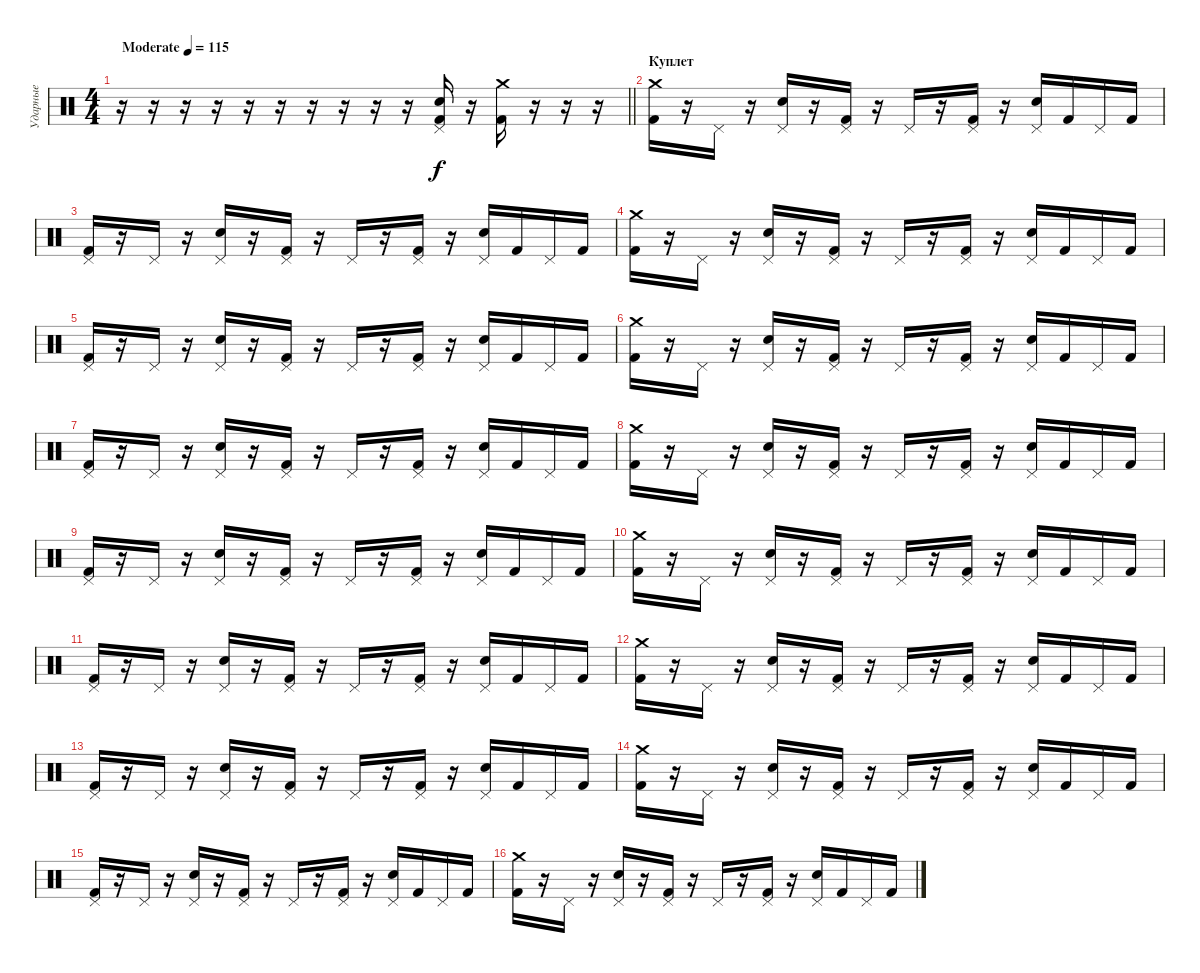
\track ("Ударные" "Ударные") {instrument percussion}
\staff {score}
\articulation defaults
\ts (4 4)
\tempo (115 "Moderate")
\clef neutral
\barLineRight lightlight
\ks c
r.16{dy f} r.16 r.16 r.16 r.16 r.16 r.16 r.16 r.16 r.16 ("Pedal Hi-Hat (hit)" "Electric Snare (hit)" "Kick (hit) 2").16 r.16 ("Crash medium (hit)" "Kick (hit) 2").16 r.16 r.16 r.16 |
\section ("" "Куплет")
("Crash medium (hit)" "Kick (hit) 2").16 r.16 "Pedal Hi-Hat (hit)".16 r.16 ("Pedal Hi-Hat (hit)" "Electric Snare (hit)").16 r.16 ("Pedal Hi-Hat (hit)" "Kick (hit) 2").16 r.16 "Pedal Hi-Hat (hit)".16 r.16 ("Pedal Hi-Hat (hit)" "Kick (hit) 2").16 r.16 ("Pedal Hi-Hat (hit)" "Electric Snare (hit)").16 "Kick (hit) 2".16 "Pedal Hi-Hat (hit)".16 "Kick (hit) 2".16 |
("Pedal Hi-Hat (hit)" "Kick (hit) 2").16 r.16 "Pedal Hi-Hat (hit)".16 r.16 ("Pedal Hi-Hat (hit)" "Electric Snare (hit)").16 r.16 ("Pedal Hi-Hat (hit)" "Kick (hit) 2").16 r.16 "Pedal Hi-Hat (hit)".16 r.16 ("Pedal Hi-Hat (hit)" "Kick (hit) 2").16 r.16 ("Pedal Hi-Hat (hit)" "Electric Snare (hit)").16 "Kick (hit) 2".16 "Pedal Hi-Hat (hit)".16 "Kick (hit) 2".16 |
("Crash medium (hit)" "Kick (hit) 2").16 r.16 "Pedal Hi-Hat (hit)".16 r.16 ("Pedal Hi-Hat (hit)" "Electric Snare (hit)").16 r.16 ("Pedal Hi-Hat (hit)" "Kick (hit) 2").16 r.16 "Pedal Hi-Hat (hit)".16 r.16 ("Pedal Hi-Hat (hit)" "Kick (hit) 2").16 r.16 ("Pedal Hi-Hat (hit)" "Electric Snare (hit)").16 "Kick (hit) 2".16 "Pedal Hi-Hat (hit)".16 "Kick (hit) 2".16 |
("Pedal Hi-Hat (hit)" "Kick (hit) 2").16 r.16 "Pedal Hi-Hat (hit)".16 r.16 ("Pedal Hi-Hat (hit)" "Electric Snare (hit)").16 r.16 ("Pedal Hi-Hat (hit)" "Kick (hit) 2").16 r.16 "Pedal Hi-Hat (hit)".16 r.16 ("Pedal Hi-Hat (hit)" "Kick (hit) 2").16 r.16 ("Pedal Hi-Hat (hit)" "Electric Snare (hit)").16 "Kick (hit) 2".16 "Pedal Hi-Hat (hit)".16 "Kick (hit) 2".16 |
("Crash medium (hit)" "Kick (hit) 2").16 r.16 "Pedal Hi-Hat (hit)".16 r.16 ("Pedal Hi-Hat (hit)" "Electric Snare (hit)").16 r.16 ("Pedal Hi-Hat (hit)" "Kick (hit) 2").16 r.16 "Pedal Hi-Hat (hit)".16 r.16 ("Pedal Hi-Hat (hit)" "Kick (hit) 2").16 r.16 ("Pedal Hi-Hat (hit)" "Electric Snare (hit)").16 "Kick (hit) 2".16 "Pedal Hi-Hat (hit)".16 "Kick (hit) 2".16 |
("Pedal Hi-Hat (hit)" "Kick (hit) 2").16 r.16 "Pedal Hi-Hat (hit)".16 r.16 ("Pedal Hi-Hat (hit)" "Electric Snare (hit)").16 r.16 ("Pedal Hi-Hat (hit)" "Kick (hit) 2").16 r.16 "Pedal Hi-Hat (hit)".16 r.16 ("Pedal Hi-Hat (hit)" "Kick (hit) 2").16 r.16 ("Pedal Hi-Hat (hit)" "Electric Snare (hit)").16 "Kick (hit) 2".16 "Pedal Hi-Hat (hit)".16 "Kick (hit) 2".16 |
("Crash medium (hit)" "Kick (hit) 2").16 r.16 "Pedal Hi-Hat (hit)".16 r.16 ("Pedal Hi-Hat (hit)" "Electric Snare (hit)").16 r.16 ("Pedal Hi-Hat (hit)" "Kick (hit) 2").16 r.16 "Pedal Hi-Hat (hit)".16 r.16 ("Pedal Hi-Hat (hit)" "Kick (hit) 2").16 r.16 ("Pedal Hi-Hat (hit)" "Electric Snare (hit)").16 "Kick (hit) 2".16 "Pedal Hi-Hat (hit)".16 "Kick (hit) 2".16 |
("Pedal Hi-Hat (hit)" "Kick (hit) 2").16 r.16 "Pedal Hi-Hat (hit)".16 r.16 ("Pedal Hi-Hat (hit)" "Electric Snare (hit)").16 r.16 ("Pedal Hi-Hat (hit)" "Kick (hit) 2").16 r.16 "Pedal Hi-Hat (hit)".16 r.16 ("Pedal Hi-Hat (hit)" "Kick (hit) 2").16 r.16 ("Pedal Hi-Hat (hit)" "Electric Snare (hit)").16 "Kick (hit) 2".16 "Pedal Hi-Hat (hit)".16 "Kick (hit) 2".16 |
("Crash medium (hit)" "Kick (hit) 2").16 r.16 "Pedal Hi-Hat (hit)".16 r.16 ("Pedal Hi-Hat (hit)" "Electric Snare (hit)").16 r.16 ("Pedal Hi-Hat (hit)" "Kick (hit) 2").16 r.16 "Pedal Hi-Hat (hit)".16 r.16 ("Pedal Hi-Hat (hit)" "Kick (hit) 2").16 r.16 ("Pedal Hi-Hat (hit)" "Electric Snare (hit)").16 "Kick (hit) 2".16 "Pedal Hi-Hat (hit)".16 "Kick (hit) 2".16 |
("Pedal Hi-Hat (hit)" "Kick (hit) 2").16 r.16 "Pedal Hi-Hat (hit)".16 r.16 ("Pedal Hi-Hat (hit)" "Electric Snare (hit)").16 r.16 ("Pedal Hi-Hat (hit)" "Kick (hit) 2").16 r.16 "Pedal Hi-Hat (hit)".16 r.16 ("Pedal Hi-Hat (hit)" "Kick (hit) 2").16 r.16 ("Pedal Hi-Hat (hit)" "Electric Snare (hit)").16 "Kick (hit) 2".16 "Pedal Hi-Hat (hit)".16 "Kick (hit) 2".16 |
("Crash medium (hit)" "Kick (hit) 2").16 r.16 "Pedal Hi-Hat (hit)".16 r.16 ("Pedal Hi-Hat (hit)" "Electric Snare (hit)").16 r.16 ("Pedal Hi-Hat (hit)" "Kick (hit) 2").16 r.16 "Pedal Hi-Hat (hit)".16 r.16 ("Pedal Hi-Hat (hit)" "Kick (hit) 2").16 r.16 ("Pedal Hi-Hat (hit)" "Electric Snare (hit)").16 "Kick (hit) 2".16 "Pedal Hi-Hat (hit)".16 "Kick (hit) 2".16 |
("Pedal Hi-Hat (hit)" "Kick (hit) 2").16 r.16 "Pedal Hi-Hat (hit)".16 r.16 ("Pedal Hi-Hat (hit)" "Electric Snare (hit)").16 r.16 ("Pedal Hi-Hat (hit)" "Kick (hit) 2").16 r.16 "Pedal Hi-Hat (hit)".16 r.16 ("Pedal Hi-Hat (hit)" "Kick (hit) 2").16 r.16 ("Pedal Hi-Hat (hit)" "Electric Snare (hit)").16 "Kick (hit) 2".16 "Pedal Hi-Hat (hit)".16 "Kick (hit) 2".16 |
("Crash medium (hit)" "Kick (hit) 2").16 r.16 "Pedal Hi-Hat (hit)".16 r.16 ("Pedal Hi-Hat (hit)" "Electric Snare (hit)").16 r.16 ("Pedal Hi-Hat (hit)" "Kick (hit) 2").16 r.16 "Pedal Hi-Hat (hit)".16 r.16 ("Pedal Hi-Hat (hit)" "Kick (hit) 2").16 r.16 ("Pedal Hi-Hat (hit)" "Electric Snare (hit)").16 "Kick (hit) 2".16 "Pedal Hi-Hat (hit)".16 "Kick (hit) 2".16 |
("Pedal Hi-Hat (hit)" "Kick (hit) 2").16 r.16 "Pedal Hi-Hat (hit)".16 r.16 ("Pedal Hi-Hat (hit)" "Electric Snare (hit)").16 r.16 ("Pedal Hi-Hat (hit)" "Kick (hit) 2").16 r.16 "Pedal Hi-Hat (hit)".16 r.16 ("Pedal Hi-Hat (hit)" "Kick (hit) 2").16 r.16 ("Pedal Hi-Hat (hit)" "Electric Snare (hit)").16 "Kick (hit) 2".16 "Pedal Hi-Hat (hit)".16 "Kick (hit) 2".16 |
("Crash medium (hit)" "Kick (hit) 2").16 r.16 "Pedal Hi-Hat (hit)".16 r.16 ("Pedal Hi-Hat (hit)" "Electric Snare (hit)").16 r.16 ("Pedal Hi-Hat (hit)" "Kick (hit) 2").16 r.16 "Pedal Hi-Hat (hit)".16 r.16 ("Pedal Hi-Hat (hit)" "Kick (hit) 2").16 r.16 ("Pedal Hi-Hat (hit)" "Electric Snare (hit)").16 "Kick (hit) 2".16 "Pedal Hi-Hat (hit)".16 "Kick (hit) 2".16
